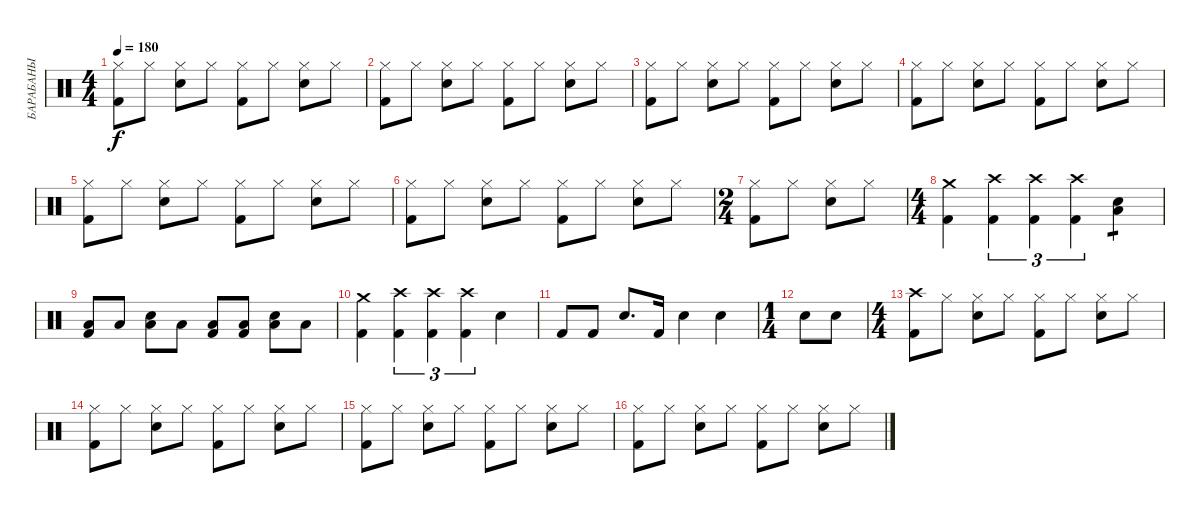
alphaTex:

\track ("БАРАБАНЫ" "БАРАБАНЫ") {instrument percussion}
\staff {score}
\articulation defaults
\ts (4 4)
\tempo 180
\clef neutral
\ks c
("Hi-Hat (closed)" "Kick (hit) 2").8{dy f} "Hi-Hat (closed)".8 ("Hi-Hat (closed)" "Electric Snare (hit)").8 "Hi-Hat (closed)".8 ("Hi-Hat (closed)" "Kick (hit) 2").8 "Hi-Hat (closed)".8 ("Hi-Hat (closed)" "Electric Snare (hit)").8 "Hi-Hat (closed)".8 |
("Hi-Hat (closed)" "Kick (hit) 2").8 "Hi-Hat (closed)".8 ("Hi-Hat (closed)" "Electric Snare (hit)").8 "Hi-Hat (closed)".8 ("Hi-Hat (closed)" "Kick (hit) 2").8 "Hi-Hat (closed)".8 ("Hi-Hat (closed)" "Electric Snare (hit)").8 "Hi-Hat (closed)".8 |
("Hi-Hat (closed)" "Kick (hit) 2").8 "Hi-Hat (closed)".8 ("Hi-Hat (closed)" "Electric Snare (hit)").8 "Hi-Hat (closed)".8 ("Hi-Hat (closed)" "Kick (hit) 2").8 "Hi-Hat (closed)".8 ("Hi-Hat (closed)" "Electric Snare (hit)").8 "Hi-Hat (closed)".8 |
("Hi-Hat (closed)" "Kick (hit) 2").8 "Hi-Hat (closed)".8 ("Hi-Hat (closed)" "Electric Snare (hit)").8 "Hi-Hat (closed)".8 ("Hi-Hat (closed)" "Kick (hit) 2").8 "Hi-Hat (closed)".8 ("Hi-Hat (closed)" "Electric Snare (hit)").8 "Hi-Hat (closed)".8 |
("Hi-Hat (closed)" "Kick (hit) 2").8 "Hi-Hat (closed)".8 ("Hi-Hat (closed)" "Electric Snare (hit)").8 "Hi-Hat (closed)".8 ("Hi-Hat (closed)" "Kick (hit) 2").8 "Hi-Hat (closed)".8 ("Hi-Hat (closed)" "Electric Snare (hit)").8 "Hi-Hat (closed)".8 |
("Hi-Hat (closed)" "Kick (hit) 2").8 "Hi-Hat (closed)".8 ("Hi-Hat (closed)" "Electric Snare (hit)").8 "Hi-Hat (closed)".8 ("Hi-Hat (closed)" "Kick (hit) 2").8 "Hi-Hat (closed)".8 ("Hi-Hat (closed)" "Electric Snare (hit)").8 "Hi-Hat (closed)".8 |
\ts (2 4)
("Hi-Hat (closed)" "Kick (hit) 2").8 "Hi-Hat (closed)".8 ("Hi-Hat (closed)" "Electric Snare (hit)").8 "Hi-Hat (closed)".8 |
\ts (4 4)
("Kick (hit) 2" "Crash medium (hit)").4 ("Kick (hit) 2" "Crash high (hit)").4{tu (3 2)} ("Kick (hit) 2" "Crash high (hit)").4{tu (3 2)} ("Kick (hit) 2" "Crash high (hit)").4{tu (3 2)} ("Electric Snare (hit)" "Low Floor Tom (hit)").4{tp 1} |
("Kick (hit) 2" "Low Floor Tom (hit)").8 "Low Floor Tom (hit)".8 ("Electric Snare (hit)" "Low Floor Tom (hit)").8 "Low Floor Tom (hit)".8 ("Low Floor Tom (hit)" "Kick (hit) 2").8 ("Low Floor Tom (hit)" "Kick (hit) 2").8 ("Low Floor Tom (hit)" "Electric Snare (hit)").8 "Low Floor Tom (hit)".8 |
("Kick (hit) 2" "Crash medium (hit)").4 ("Kick (hit) 2" "Crash high (hit)").4{tu (3 2)} ("Kick (hit) 2" "Crash high (hit)").4{tu (3 2)} ("Kick (hit) 2" "Crash high (hit)").4{tu (3 2)} "Electric Snare (hit)".4 |
"Kick (hit) 2".8 "Kick (hit) 2".8 "Electric Snare (hit)".8{d} "Kick (hit) 2".16 "Electric Snare (hit)".4 "Electric Snare (hit)".4 |
\ts (1 4)
"Electric Snare (hit)".8 "Electric Snare (hit)".8 |
\ts (4 4)
("Crash high (hit)" "Kick (hit) 2").8 "Hi-Hat (closed)".8 ("Hi-Hat (closed)" "Electric Snare (hit)").8 "Hi-Hat (closed)".8 ("Hi-Hat (closed)" "Kick (hit) 2").8 "Hi-Hat (closed)".8 ("Hi-Hat (closed)" "Electric Snare (hit)").8 "Hi-Hat (closed)".8 |
("Hi-Hat (closed)" "Kick (hit) 2").8 "Hi-Hat (closed)".8 ("Hi-Hat (closed)" "Electric Snare (hit)").8 "Hi-Hat (closed)".8 ("Hi-Hat (closed)" "Kick (hit) 2").8 "Hi-Hat (closed)".8 ("Hi-Hat (closed)" "Electric Snare (hit)").8 "Hi-Hat (closed)".8 |
("Hi-Hat (closed)" "Kick (hit) 2").8 "Hi-Hat (closed)".8 ("Hi-Hat (closed)" "Electric Snare (hit)").8 "Hi-Hat (closed)".8 ("Hi-Hat (closed)" "Kick (hit) 2").8 "Hi-Hat (closed)".8 ("Hi-Hat (closed)" "Electric Snare (hit)").8 "Hi-Hat (closed)".8 |
("Hi-Hat (closed)" "Kick (hit) 2").8 "Hi-Hat (closed)".8 ("Hi-Hat (closed)" "Electric Snare (hit)").8 "Hi-Hat (closed)".8 ("Hi-Hat (closed)" "Kick (hit) 2").8 "Hi-Hat (closed)".8 ("Hi-Hat (closed)" "Electric Snare (hit)").8 "Hi-Hat (closed)".8
